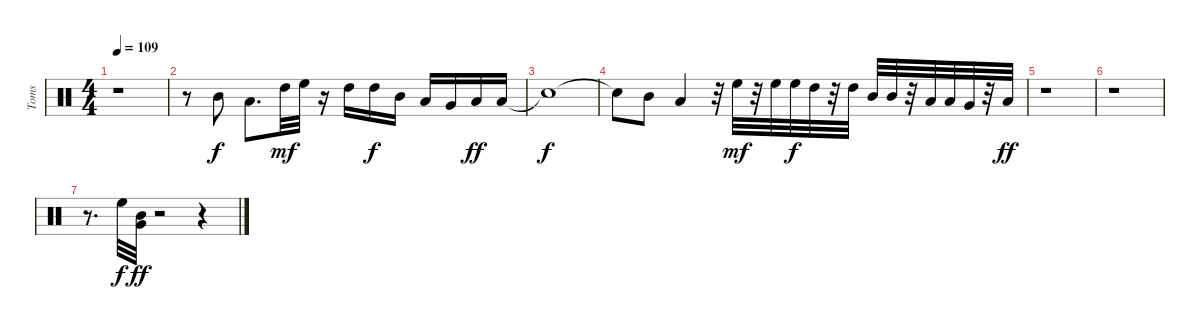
\track ("Toms" "Toms") {instrument percussion}
\staff {score}
\articulation defaults
\ts (4 4)
\tempo 109
\clef neutral
\ks c
r.1{dy f} |
r.8 "Mid Tom (hit)".8 "Low Tom (hit)".8{d} "High Tom (hit)".32{dy mf} "High Floor Tom (hit)".32 r.16 "High Tom (hit)".16 "High Tom (hit)".16{dy f} "Mid Tom (hit)".16 "Low Tom (hit)".16 "Very Low Tom (hit)".16 "Low Floor Tom (hit)".16{dy ff} "Low Floor Tom (hit)".16 |
"Snare (hit)"{t}.1{dy f} |
"Snare (hit)"{t}.8 "Mid Tom (hit)".8 "Low Tom (hit)".4 r.32 "High Floor Tom (hit)".32{dy mf} r.32 "High Floor Tom (hit)".32 "High Floor Tom (hit)".32{dy f} "High Tom (hit)".32 r.32 "High Tom (hit)".32 "Mid Tom (hit)".32 "Mid Tom (hit)".32 r.32 "Low Tom (hit)".32 "Low Tom (hit)".32 "Very Low Tom (hit)".32 r.32 "Low Floor Tom (hit)".32{dy ff} |
r.1 |
r.1 |
r.8{d} "High Floor Tom (hit)".32{dy f} ("Mid Tom (hit)" "Very Low Tom (hit)").32{dy ff} r.2 r.4
